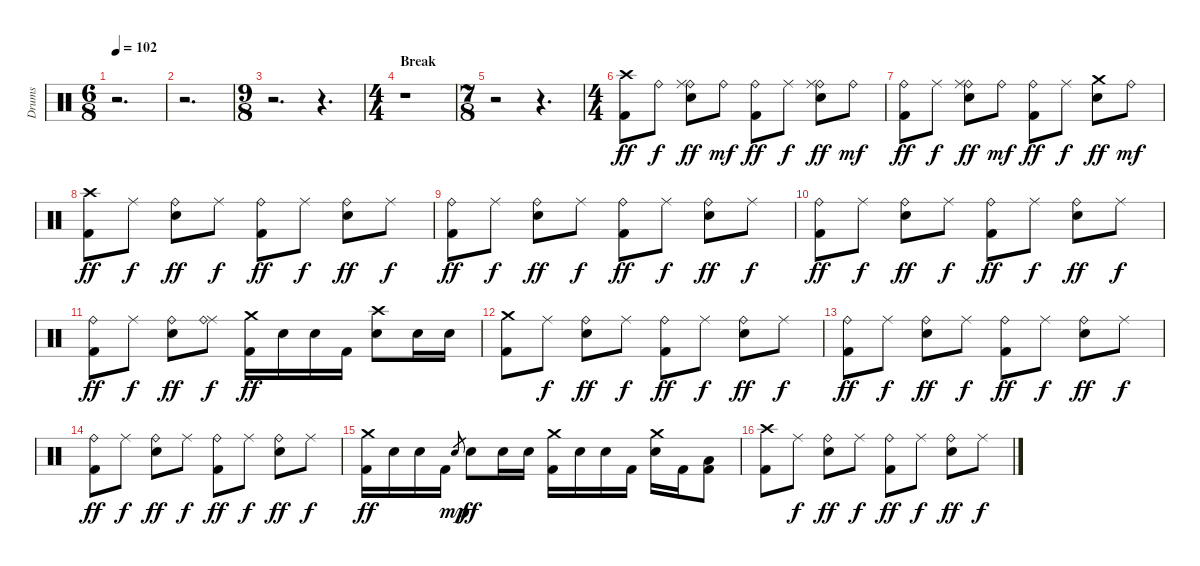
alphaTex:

\track ("Drums" "Drums") {instrument percussion}
\staff {score}
\articulation defaults
\ts (6 8)
\tempo 102
\clef neutral
\ks c
r.2{d dy ff} |
r.2{d} |
\ts (9 8)
r.2{d} r.4{d} |
\ts (4 4)
\section ("" "Break")
r.1 |
\ts (7 8)
r.2 r.4{d} |
\ts (4 4)
("Crash high (hit)" "Kick (hit) 2").8 "Ride (bell)".8{dy f} ("Ride (bell)" "Ride (middle)" "Electric Snare (hit)").8{dy ff} "Ride (bell)".8{dy mf} ("Ride (bell)" "Kick (hit) 2").8{dy ff} "Ride (middle)".8{dy f} ("Ride (bell)" "Ride (middle)" "Electric Snare (hit)").8{dy ff} "Ride (bell)".8{dy mf} |
("Ride (bell)" "Kick (hit) 2").8{dy ff} "Ride (middle)".8{dy f} ("Ride (bell)" "Ride (middle)" "Electric Snare (hit)").8{dy ff} "Ride (bell)".8{dy mf} ("Ride (bell)" "Kick (hit) 2").8{dy ff} "Ride (middle)".8{dy f} ("Crash medium (hit)" "Electric Snare (hit)").8{dy ff} "Ride (bell)".8{dy mf} |
("Crash high (hit)" "Kick (hit) 2").8{dy ff} "Ride (middle)".8{dy f} ("Ride (bell)" "Electric Snare (hit)").8{dy ff} "Ride (middle)".8{dy f} ("Ride (bell)" "Kick (hit) 2").8{dy ff} "Ride (middle)".8{dy f} ("Ride (bell)" "Electric Snare (hit)").8{dy ff} "Ride (middle)".8{dy f} |
("Ride (bell)" "Kick (hit) 2").8{dy ff} "Ride (middle)".8{dy f} ("Ride (bell)" "Electric Snare (hit)").8{dy ff} "Ride (middle)".8{dy f} ("Ride (bell)" "Kick (hit) 2").8{dy ff} "Ride (middle)".8{dy f} ("Ride (bell)" "Electric Snare (hit)").8{dy ff} "Ride (middle)".8{dy f} |
("Ride (bell)" "Kick (hit) 2").8{dy ff} "Ride (middle)".8{dy f} ("Ride (bell)" "Electric Snare (hit)").8{dy ff} "Ride (middle)".8{dy f} ("Ride (bell)" "Kick (hit) 2").8{dy ff} "Ride (middle)".8{dy f} ("Ride (bell)" "Electric Snare (hit)").8{dy ff} "Ride (middle)".8{dy f} |
("Ride (bell)" "Kick (hit) 2").8{dy ff} "Ride (middle)".8{dy f} ("Ride (bell)" "Electric Snare (hit)").8{dy ff} ("Ride (middle)" "Ride (bell)").8{dy f} ("Crash medium (hit)" "Kick (hit) 2").16{dy ff} "Electric Snare (hit)".16 "Electric Snare (hit)".16 "Kick (hit) 2".16 ("Crash high (hit)" "Electric Snare (hit)").8 "Electric Snare (hit)".16 "Electric Snare (hit)".16 |
("Crash medium (hit)" "Kick (hit) 2").8 "Ride (middle)".8{dy f} ("Ride (bell)" "Electric Snare (hit)").8{dy ff} "Ride (middle)".8{dy f} ("Ride (bell)" "Kick (hit) 2").8{dy ff} "Ride (middle)".8{dy f} ("Ride (bell)" "Electric Snare (hit)").8{dy ff} "Ride (middle)".8{dy f} |
("Ride (bell)" "Kick (hit) 2").8{dy ff} "Ride (middle)".8{dy f} ("Ride (bell)" "Electric Snare (hit)").8{dy ff} "Ride (middle)".8{dy f} ("Ride (bell)" "Kick (hit) 2").8{dy ff} "Ride (middle)".8{dy f} ("Ride (bell)" "Electric Snare (hit)").8{dy ff} "Ride (middle)".8{dy f} |
("Ride (bell)" "Kick (hit) 2").8{dy ff} "Ride (middle)".8{dy f} ("Ride (bell)" "Electric Snare (hit)").8{dy ff} "Ride (middle)".8{dy f} ("Ride (bell)" "Kick (hit) 2").8{dy ff} "Ride (middle)".8{dy f} ("Ride (bell)" "Electric Snare (hit)").8{dy ff} "Ride (middle)".8{dy f} |
("Crash medium (hit)" "Kick (hit) 2").16{dy ff} "Electric Snare (hit)".16 "Electric Snare (hit)".16 "Kick (hit) 2".16 "Electric Snare (hit)".8{gr dy mp} "Electric Snare (hit)".8{dy ff} "Electric Snare (hit)".16 "Electric Snare (hit)".16 ("Crash medium (hit)" "Kick (hit) 2").16 "Electric Snare (hit)".16 "Electric Snare (hit)".16 "Kick (hit) 2".16 ("Crash medium (hit)" "Electric Snare (hit)").16 "Kick (hit) 2".16 ("Low Floor Tom (hit)" "Kick (hit) 2").8 |
("Crash high (hit)" "Kick (hit) 2").8 "Ride (middle)".8{dy f} ("Ride (bell)" "Electric Snare (hit)").8{dy ff} "Ride (middle)".8{dy f} ("Ride (bell)" "Kick (hit) 2").8{dy ff} "Ride (middle)".8{dy f} ("Ride (bell)" "Electric Snare (hit)").8{dy ff} "Ride (middle)".8{dy f}
